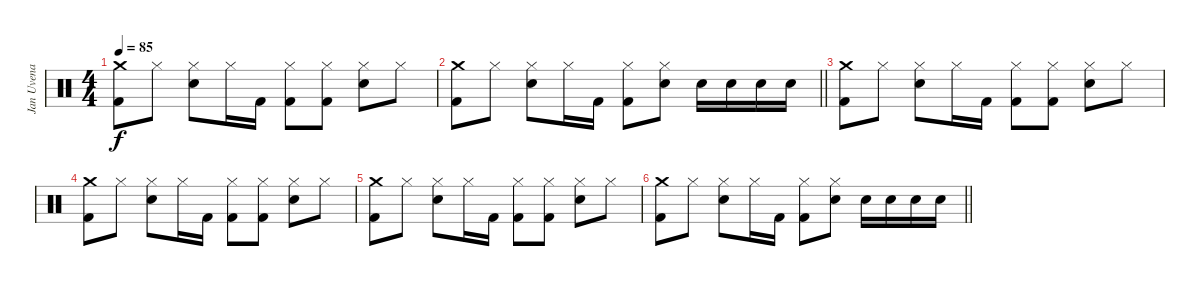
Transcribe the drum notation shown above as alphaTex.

\track ("Jan Uvena" "Jan Uvena") {instrument percussion}
\staff {score}
\articulation defaults
\ts (4 4)
\tempo 85
\clef neutral
\ks c
("Crash medium (hit)" "Kick (hit) 2").8{dy f} "Hi-Hat (closed)".8 ("Hi-Hat (closed)" "Snare (hit) 2").8 "Hi-Hat (closed)".16 "Kick (hit) 2".16 ("Hi-Hat (closed)" "Kick (hit) 2").8 ("Hi-Hat (closed)" "Kick (hit) 2").8 ("Hi-Hat (closed)" "Snare (hit) 2").8 "Hi-Hat (closed)".8 |
\barLineRight lightlight
("Crash medium (hit)" "Kick (hit) 2").8 "Hi-Hat (closed)".8 ("Hi-Hat (closed)" "Snare (hit) 2").8 "Hi-Hat (closed)".16 "Kick (hit) 2".16 ("Hi-Hat (closed)" "Kick (hit) 2").8 ("Hi-Hat (closed)" "Snare (hit) 2").8 "Snare (hit) 2".16 "Snare (hit) 2".16 "Snare (hit) 2".16 "Snare (hit) 2".16 |
("Crash medium (hit)" "Kick (hit) 2").8 "Hi-Hat (closed)".8 ("Hi-Hat (closed)" "Snare (hit) 2").8 "Hi-Hat (closed)".16 "Kick (hit) 2".16 ("Hi-Hat (closed)" "Kick (hit) 2").8 ("Hi-Hat (closed)" "Kick (hit) 2").8 ("Hi-Hat (closed)" "Snare (hit) 2").8 "Hi-Hat (closed)".8 |
("Crash medium (hit)" "Kick (hit) 2").8 "Hi-Hat (closed)".8 ("Hi-Hat (closed)" "Snare (hit) 2").8 "Hi-Hat (closed)".16 "Kick (hit) 2".16 ("Hi-Hat (closed)" "Kick (hit) 2").8 ("Hi-Hat (closed)" "Kick (hit) 2").8 ("Hi-Hat (closed)" "Snare (hit) 2").8 "Hi-Hat (closed)".8 |
("Crash medium (hit)" "Kick (hit) 2").8 "Hi-Hat (closed)".8 ("Hi-Hat (closed)" "Snare (hit) 2").8 "Hi-Hat (closed)".16 "Kick (hit) 2".16 ("Hi-Hat (closed)" "Kick (hit) 2").8 ("Hi-Hat (closed)" "Kick (hit) 2").8 ("Hi-Hat (closed)" "Snare (hit) 2").8 "Hi-Hat (closed)".8 |
\barLineRight lightlight
("Crash medium (hit)" "Kick (hit) 2").8 "Hi-Hat (closed)".8 ("Hi-Hat (closed)" "Snare (hit) 2").8 "Hi-Hat (closed)".16 "Kick (hit) 2".16 ("Hi-Hat (closed)" "Kick (hit) 2").8 ("Hi-Hat (closed)" "Snare (hit) 2").8 "Snare (hit) 2".16 "Snare (hit) 2".16 "Snare (hit) 2".16 "Snare (hit) 2".16
